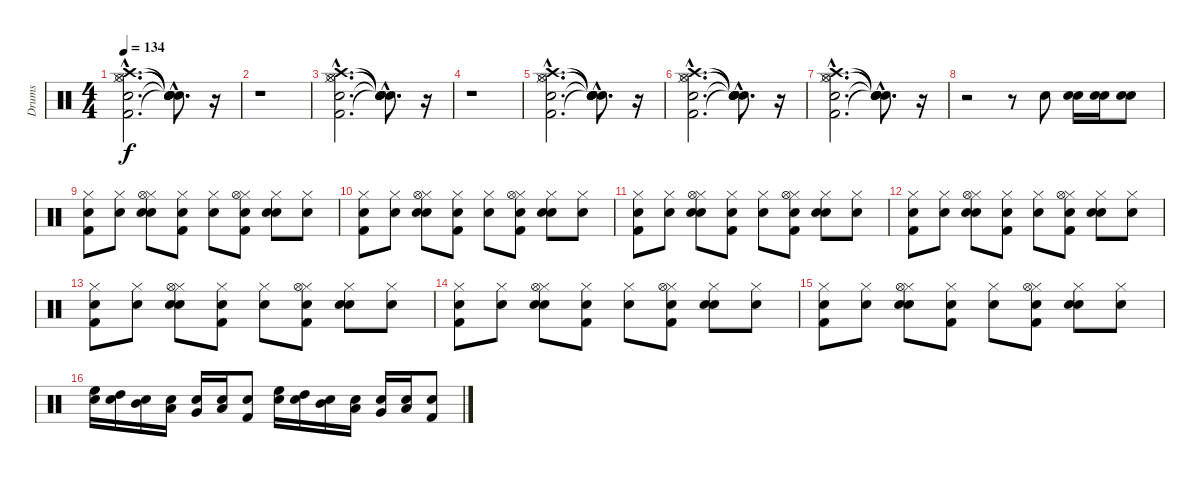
\track ("Drums" "Drums") {instrument percussion}
\staff {score}
\articulation defaults
\ts (4 4)
\tempo 134
\clef neutral
\ks c
("Kick (hit) 2"{hac} "Snare (hit) 2"{hac} "Hi-Hat (closed)"{hac} "Hi-Hat (open)"{hac} "Crash high (hit)"{hac}).2{d dy f} ("Snare (hit)"{hac t} "Snare (hit)"{hac t} "Snare (hit)"{hac t} "Snare (hit)"{hac t} "Snare (hit)"{hac t}).8{d} r.16 |
r.1 |
("Kick (hit) 2"{hac} "Snare (hit) 2"{hac} "Hi-Hat (closed)"{hac} "Hi-Hat (open)"{hac} "Crash high (hit)"{hac}).2{d} ("Snare (hit)"{hac t} "Snare (hit)"{hac t} "Snare (hit)"{hac t} "Snare (hit)"{hac t} "Snare (hit)"{hac t}).8{d} r.16 |
r.1 |
("Kick (hit) 2"{hac} "Snare (hit) 2"{hac} "Hi-Hat (closed)"{hac} "Hi-Hat (open)"{hac} "Crash high (hit)"{hac}).2{d} ("Snare (hit)"{hac t} "Snare (hit)"{hac t} "Snare (hit)"{hac t} "Snare (hit)"{hac t} "Snare (hit)"{hac t}).8{d} r.16 |
("Kick (hit) 2"{hac} "Snare (hit) 2"{hac} "Hi-Hat (closed)"{hac} "Hi-Hat (open)"{hac} "Crash high (hit)"{hac}).2{d} ("Snare (hit)"{hac t} "Snare (hit)"{hac t} "Snare (hit)"{hac t} "Snare (hit)"{hac t} "Snare (hit)"{hac t}).8{d} r.16 |
("Kick (hit) 2"{hac} "Snare (hit) 2"{hac} "Hi-Hat (closed)"{hac} "Hi-Hat (open)"{hac} "Crash high (hit)"{hac}).2{d} ("Snare (hit)"{hac t} "Snare (hit)"{hac t} "Snare (hit)"{hac t} "Snare (hit)"{hac t} "Snare (hit)"{hac t}).8{d} r.16 |
r.2 r.8 "Snare (hit) 2".8 ("Snare (hit)" "Snare (hit) 2").16 ("Snare (hit)" "Snare (hit) 2").16 ("Snare (hit)" "Snare (hit) 2").8 |
("Snare (hit)" "Kick (hit) 2" "Hi-Hat (closed)").8 ("Snare (hit)" "Hi-Hat (closed)").8 ("Snare (hit)" "Snare (hit) 2" "Hi-Hat (closed)" "Hi-Hat (open)").8 ("Snare (hit)" "Kick (hit) 2" "Hi-Hat (closed)").8 ("Snare (hit)" "Hi-Hat (closed)").8 ("Snare (hit)" "Kick (hit) 2" "Hi-Hat (closed)" "Hi-Hat (open)").8 ("Snare (hit)" "Snare (hit) 2" "Hi-Hat (closed)").8 ("Snare (hit)" "Hi-Hat (closed)").8 |
("Snare (hit)" "Kick (hit) 2" "Hi-Hat (closed)").8 ("Snare (hit)" "Hi-Hat (closed)").8 ("Snare (hit)" "Snare (hit) 2" "Hi-Hat (closed)" "Hi-Hat (open)").8 ("Snare (hit)" "Kick (hit) 2" "Hi-Hat (closed)").8 ("Snare (hit)" "Hi-Hat (closed)").8 ("Snare (hit)" "Kick (hit) 2" "Hi-Hat (closed)" "Hi-Hat (open)").8 ("Snare (hit)" "Snare (hit) 2" "Hi-Hat (closed)").8 ("Snare (hit)" "Hi-Hat (closed)").8 |
("Snare (hit)" "Kick (hit) 2" "Hi-Hat (closed)").8 ("Snare (hit)" "Hi-Hat (closed)").8 ("Snare (hit)" "Snare (hit) 2" "Hi-Hat (closed)" "Hi-Hat (open)").8 ("Snare (hit)" "Kick (hit) 2" "Hi-Hat (closed)").8 ("Snare (hit)" "Hi-Hat (closed)").8 ("Snare (hit)" "Kick (hit) 2" "Hi-Hat (closed)" "Hi-Hat (open)").8 ("Snare (hit)" "Snare (hit) 2" "Hi-Hat (closed)").8 ("Snare (hit)" "Hi-Hat (closed)").8 |
("Snare (hit)" "Kick (hit) 2" "Hi-Hat (closed)").8 ("Snare (hit)" "Hi-Hat (closed)").8 ("Snare (hit)" "Snare (hit) 2" "Hi-Hat (closed)" "Hi-Hat (open)").8 ("Snare (hit)" "Kick (hit) 2" "Hi-Hat (closed)").8 ("Snare (hit)" "Hi-Hat (closed)").8 ("Snare (hit)" "Kick (hit) 2" "Hi-Hat (closed)" "Hi-Hat (open)").8 ("Snare (hit)" "Snare (hit) 2" "Hi-Hat (closed)").8 ("Snare (hit)" "Hi-Hat (closed)").8 |
("Snare (hit)" "Kick (hit) 2" "Hi-Hat (closed)").8 ("Snare (hit)" "Hi-Hat (closed)").8 ("Snare (hit)" "Snare (hit) 2" "Hi-Hat (closed)" "Hi-Hat (open)").8 ("Snare (hit)" "Kick (hit) 2" "Hi-Hat (closed)").8 ("Snare (hit)" "Hi-Hat (closed)").8 ("Snare (hit)" "Kick (hit) 2" "Hi-Hat (closed)" "Hi-Hat (open)").8 ("Snare (hit)" "Snare (hit) 2" "Hi-Hat (closed)").8 ("Snare (hit)" "Hi-Hat (closed)").8 |
("Snare (hit)" "Kick (hit) 2" "Hi-Hat (closed)").8 ("Snare (hit)" "Hi-Hat (closed)").8 ("Snare (hit)" "Snare (hit) 2" "Hi-Hat (closed)" "Hi-Hat (open)").8 ("Snare (hit)" "Kick (hit) 2" "Hi-Hat (closed)").8 ("Snare (hit)" "Hi-Hat (closed)").8 ("Snare (hit)" "Kick (hit) 2" "Hi-Hat (closed)" "Hi-Hat (open)").8 ("Snare (hit)" "Snare (hit) 2" "Hi-Hat (closed)").8 ("Snare (hit)" "Hi-Hat (closed)").8 |
("Snare (hit)" "Kick (hit) 2" "Hi-Hat (closed)").8 ("Snare (hit)" "Hi-Hat (closed)").8 ("Snare (hit)" "Snare (hit) 2" "Hi-Hat (closed)" "Hi-Hat (open)").8 ("Snare (hit)" "Kick (hit) 2" "Hi-Hat (closed)").8 ("Snare (hit)" "Hi-Hat (closed)").8 ("Snare (hit)" "Kick (hit) 2" "Hi-Hat (closed)" "Hi-Hat (open)").8 ("Snare (hit)" "Snare (hit) 2" "Hi-Hat (closed)").8 ("Snare (hit)" "Hi-Hat (closed)").8 |
("Snare (hit)" "High Floor Tom (hit)").16 ("Snare (hit)" "High Tom (hit)").16 ("Snare (hit)" "Mid Tom (hit)").16 ("Snare (hit)" "Low Tom (hit)").16 ("Snare (hit)" "Very Low Tom (hit)").16 ("Snare (hit)" "Low Floor Tom (hit)").16 ("Snare (hit)" "Kick (hit) 2").8 ("Snare (hit)" "High Floor Tom (hit)").16 ("Snare (hit)" "High Tom (hit)").16 ("Snare (hit)" "Mid Tom (hit)").16 ("Snare (hit)" "Low Tom (hit)").16 ("Snare (hit)" "Very Low Tom (hit)").16 ("Snare (hit)" "Low Floor Tom (hit)").16 ("Snare (hit)" "Kick (hit) 2").8
